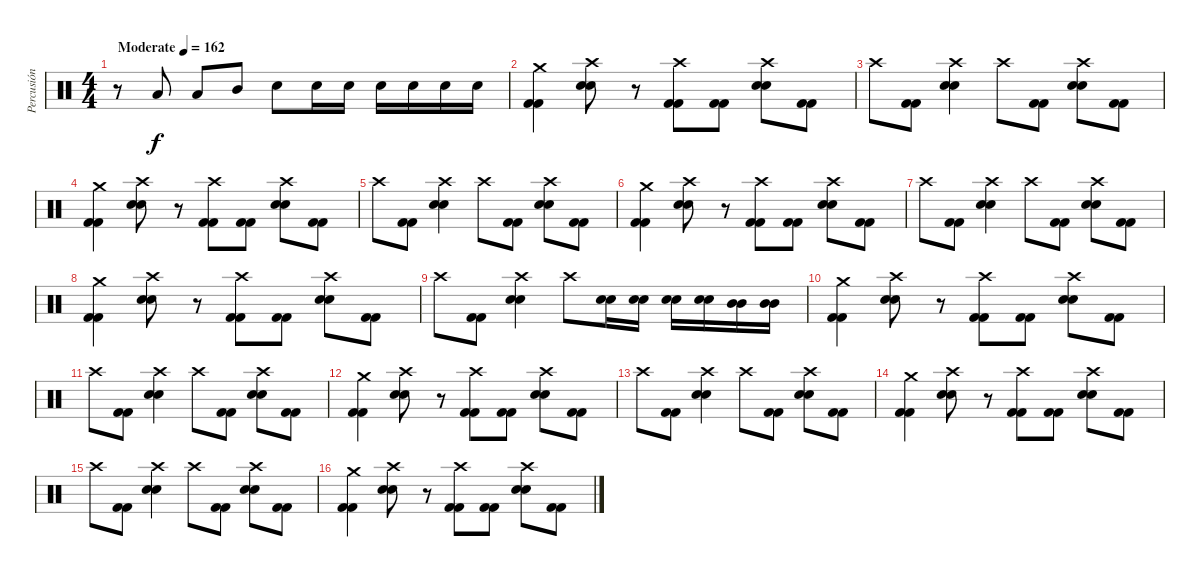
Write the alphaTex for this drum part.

\track ("Percusión" "Percusión") {instrument percussion}
\staff {score}
\articulation defaults
\ts (4 4)
\tempo (162 "Moderate")
\clef neutral
\ks c
r.8{dy f} "Low Tom (hit)".8 "Low Tom (hit)".8 "Mid Tom (hit)".8 "Snare (hit) 2".8 "Snare (hit) 2".16 "Snare (hit) 2".16 "Snare (hit) 2".16 "Snare (hit) 2".16 "Snare (hit) 2".16 "Snare (hit) 2".16 |
("Crash medium (hit)" "Kick (hit) 2" "Kick (hit) 2").4 ("Crash high (hit)" "Electric Snare (hit)" "Electric Snare (hit)").8 r.8 ("Crash high (hit)" "Kick (hit) 2" "Kick (hit) 2").8 ("Kick (hit) 2" "Kick (hit) 2").8 ("Crash high (hit)" "Electric Snare (hit)" "Electric Snare (hit)").8 ("Kick (hit) 2" "Kick (hit) 2").8 |
"Crash high (hit)".8 ("Kick (hit) 2" "Kick (hit) 2").8 ("Crash high (hit)" "Electric Snare (hit)" "Electric Snare (hit)").4 "Crash high (hit)".8 ("Kick (hit) 2" "Kick (hit) 2").8 ("Crash high (hit)" "Electric Snare (hit)" "Electric Snare (hit)").8 ("Kick (hit) 2" "Kick (hit) 2").8 |
("Crash medium (hit)" "Kick (hit) 2" "Kick (hit) 2").4 ("Crash high (hit)" "Electric Snare (hit)" "Electric Snare (hit)").8 r.8 ("Crash high (hit)" "Kick (hit) 2" "Kick (hit) 2").8 ("Kick (hit) 2" "Kick (hit) 2").8 ("Crash high (hit)" "Electric Snare (hit)" "Electric Snare (hit)").8 ("Kick (hit) 2" "Kick (hit) 2").8 |
"Crash high (hit)".8 ("Kick (hit) 2" "Kick (hit) 2").8 ("Crash high (hit)" "Electric Snare (hit)" "Electric Snare (hit)").4 "Crash high (hit)".8 ("Kick (hit) 2" "Kick (hit) 2").8 ("Crash high (hit)" "Electric Snare (hit)" "Electric Snare (hit)").8 ("Kick (hit) 2" "Kick (hit) 2").8 |
("Crash medium (hit)" "Kick (hit) 2" "Kick (hit) 2").4 ("Crash high (hit)" "Electric Snare (hit)" "Electric Snare (hit)").8 r.8 ("Crash high (hit)" "Kick (hit) 2" "Kick (hit) 2").8 ("Kick (hit) 2" "Kick (hit) 2").8 ("Crash high (hit)" "Electric Snare (hit)" "Electric Snare (hit)").8 ("Kick (hit) 2" "Kick (hit) 2").8 |
"Crash high (hit)".8 ("Kick (hit) 2" "Kick (hit) 2").8 ("Crash high (hit)" "Electric Snare (hit)" "Electric Snare (hit)").4 "Crash high (hit)".8 ("Kick (hit) 2" "Kick (hit) 2").8 ("Crash high (hit)" "Electric Snare (hit)" "Electric Snare (hit)").8 ("Kick (hit) 2" "Kick (hit) 2").8 |
("Crash medium (hit)" "Kick (hit) 2" "Kick (hit) 2").4 ("Crash high (hit)" "Electric Snare (hit)" "Electric Snare (hit)").8 r.8 ("Crash high (hit)" "Kick (hit) 2" "Kick (hit) 2").8 ("Kick (hit) 2" "Kick (hit) 2").8 ("Crash high (hit)" "Electric Snare (hit)" "Electric Snare (hit)").8 ("Kick (hit) 2" "Kick (hit) 2").8 |
"Crash high (hit)".8 ("Kick (hit) 2" "Kick (hit) 2").8 ("Crash high (hit)" "Electric Snare (hit)" "Electric Snare (hit)").4 "Crash high (hit)".8 ("Electric Snare (hit)" "Electric Snare (hit)").16 ("Electric Snare (hit)" "Electric Snare (hit)").16 ("Electric Snare (hit)" "Electric Snare (hit)").16 ("Electric Snare (hit)" "Electric Snare (hit)").16 ("Mid Tom (hit)" "Mid Tom (hit)").16 ("Mid Tom (hit)" "Mid Tom (hit)").16 |
("Crash medium (hit)" "Kick (hit) 2" "Kick (hit) 2").4 ("Crash high (hit)" "Electric Snare (hit)" "Electric Snare (hit)").8 r.8 ("Crash high (hit)" "Kick (hit) 2" "Kick (hit) 2").8 ("Kick (hit) 2" "Kick (hit) 2").8 ("Crash high (hit)" "Electric Snare (hit)" "Electric Snare (hit)").8 ("Kick (hit) 2" "Kick (hit) 2").8 |
"Crash high (hit)".8 ("Kick (hit) 2" "Kick (hit) 2").8 ("Crash high (hit)" "Electric Snare (hit)" "Electric Snare (hit)").4 "Crash high (hit)".8 ("Kick (hit) 2" "Kick (hit) 2").8 ("Crash high (hit)" "Electric Snare (hit)" "Electric Snare (hit)").8 ("Kick (hit) 2" "Kick (hit) 2").8 |
("Crash medium (hit)" "Kick (hit) 2" "Kick (hit) 2").4 ("Crash high (hit)" "Electric Snare (hit)" "Electric Snare (hit)").8 r.8 ("Crash high (hit)" "Kick (hit) 2" "Kick (hit) 2").8 ("Kick (hit) 2" "Kick (hit) 2").8 ("Crash high (hit)" "Electric Snare (hit)" "Electric Snare (hit)").8 ("Kick (hit) 2" "Kick (hit) 2").8 |
"Crash high (hit)".8 ("Kick (hit) 2" "Kick (hit) 2").8 ("Crash high (hit)" "Electric Snare (hit)" "Electric Snare (hit)").4 "Crash high (hit)".8 ("Kick (hit) 2" "Kick (hit) 2").8 ("Crash high (hit)" "Electric Snare (hit)" "Electric Snare (hit)").8 ("Kick (hit) 2" "Kick (hit) 2").8 |
("Crash medium (hit)" "Kick (hit) 2" "Kick (hit) 2").4 ("Crash high (hit)" "Electric Snare (hit)" "Electric Snare (hit)").8 r.8 ("Crash high (hit)" "Kick (hit) 2" "Kick (hit) 2").8 ("Kick (hit) 2" "Kick (hit) 2").8 ("Crash high (hit)" "Electric Snare (hit)" "Electric Snare (hit)").8 ("Kick (hit) 2" "Kick (hit) 2").8 |
"Crash high (hit)".8 ("Kick (hit) 2" "Kick (hit) 2").8 ("Crash high (hit)" "Electric Snare (hit)" "Electric Snare (hit)").4 "Crash high (hit)".8 ("Kick (hit) 2" "Kick (hit) 2").8 ("Crash high (hit)" "Electric Snare (hit)" "Electric Snare (hit)").8 ("Kick (hit) 2" "Kick (hit) 2").8 |
("Crash medium (hit)" "Kick (hit) 2" "Kick (hit) 2").4 ("Crash high (hit)" "Electric Snare (hit)" "Electric Snare (hit)").8 r.8 ("Crash high (hit)" "Kick (hit) 2" "Kick (hit) 2").8 ("Kick (hit) 2" "Kick (hit) 2").8 ("Crash high (hit)" "Electric Snare (hit)" "Electric Snare (hit)").8 ("Kick (hit) 2" "Kick (hit) 2").8
